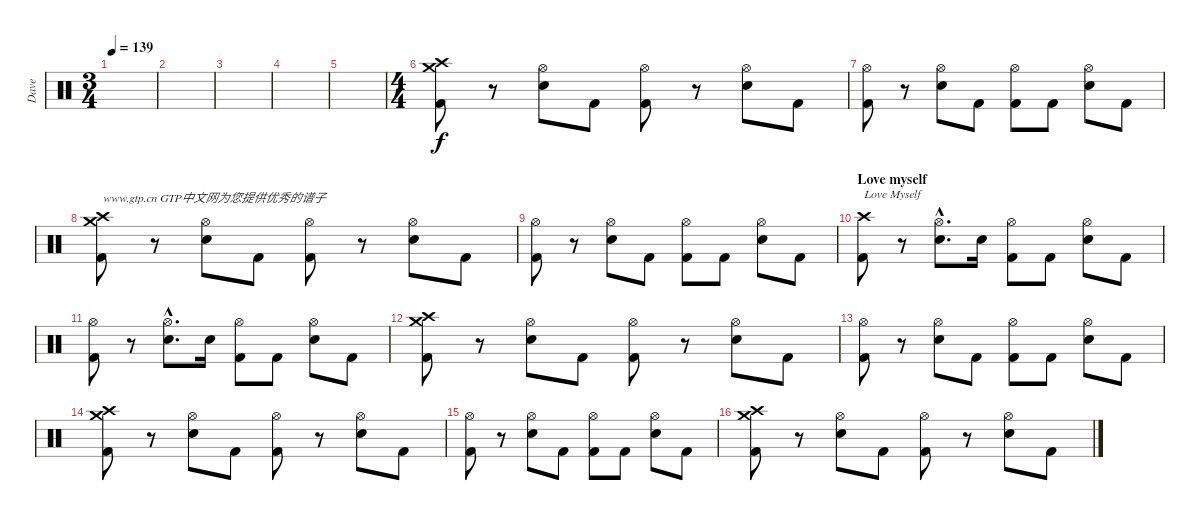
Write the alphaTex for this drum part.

\track ("Dave" "Dave") {instrument percussion}
\staff {score}
\articulation defaults
\ts (3 4)
\tempo 139
\clef neutral
\ks c
|
|
|
|
|
\ts (4 4)
("Crash medium (hit)" "Crash high (hit)" "Kick (hit) 2").8 r.8 ("Hi-Hat (open)" "Snare (hit) 2").8 "Kick (hit) 2".8 ("Hi-Hat (open)" "Kick (hit) 2").8 r.8 ("Hi-Hat (open)" "Snare (hit) 2").8 "Kick (hit) 2".8 |
("Hi-Hat (open)" "Kick (hit) 2").8 r.8 ("Hi-Hat (open)" "Snare (hit) 2").8 "Kick (hit) 2".8 ("Hi-Hat (open)" "Kick (hit) 2").8 "Kick (hit) 2".8 ("Hi-Hat (open)" "Snare (hit) 2").8 "Kick (hit) 2".8 |
("Crash medium (hit)" "Crash high (hit)" "Kick (hit) 2").8{txt "www.gtp.cn GTP中文网为您提供优秀的谱子"} r.8 ("Hi-Hat (open)" "Snare (hit) 2").8 "Kick (hit) 2".8 ("Hi-Hat (open)" "Kick (hit) 2").8 r.8 ("Hi-Hat (open)" "Snare (hit) 2").8 "Kick (hit) 2".8 |
("Hi-Hat (open)" "Kick (hit) 2").8 r.8 ("Hi-Hat (open)" "Snare (hit) 2").8 "Kick (hit) 2".8 ("Hi-Hat (open)" "Kick (hit) 2").8 "Kick (hit) 2".8 ("Hi-Hat (open)" "Snare (hit) 2").8 "Kick (hit) 2".8 |
\section ("" "Love myself")
("Crash high (hit)" "Kick (hit) 2").8{txt "Love Myself"} r.8 ("Hi-Hat (open)"{hac} "Snare (hit) 2"{hac}).8{d} "Snare (hit) 2".16 ("Hi-Hat (open)" "Kick (hit) 2").8 "Kick (hit) 2".8 ("Hi-Hat (open)" "Snare (hit) 2").8 "Kick (hit) 2".8 |
("Hi-Hat (open)" "Kick (hit) 2").8 r.8 ("Hi-Hat (open)"{hac} "Snare (hit) 2"{hac}).8{d} "Snare (hit) 2".16 ("Hi-Hat (open)" "Kick (hit) 2").8 "Kick (hit) 2".8 ("Hi-Hat (open)" "Snare (hit) 2").8 "Kick (hit) 2".8 |
("Crash medium (hit)" "Crash high (hit)" "Kick (hit) 2").8 r.8 ("Hi-Hat (open)" "Snare (hit) 2").8 "Kick (hit) 2".8 ("Hi-Hat (open)" "Kick (hit) 2").8 r.8 ("Hi-Hat (open)" "Snare (hit) 2").8 "Kick (hit) 2".8 |
("Hi-Hat (open)" "Kick (hit) 2").8 r.8 ("Hi-Hat (open)" "Snare (hit) 2").8 "Kick (hit) 2".8 ("Hi-Hat (open)" "Kick (hit) 2").8 "Kick (hit) 2".8 ("Hi-Hat (open)" "Snare (hit) 2").8 "Kick (hit) 2".8 |
("Crash medium (hit)" "Crash high (hit)" "Kick (hit) 2").8 r.8 ("Hi-Hat (open)" "Snare (hit) 2").8 "Kick (hit) 2".8 ("Hi-Hat (open)" "Kick (hit) 2").8 r.8 ("Hi-Hat (open)" "Snare (hit) 2").8 "Kick (hit) 2".8 |
("Hi-Hat (open)" "Kick (hit) 2").8 r.8 ("Hi-Hat (open)" "Snare (hit) 2").8 "Kick (hit) 2".8 ("Hi-Hat (open)" "Kick (hit) 2").8 "Kick (hit) 2".8 ("Hi-Hat (open)" "Snare (hit) 2").8 "Kick (hit) 2".8 |
("Crash medium (hit)" "Crash high (hit)" "Kick (hit) 2").8 r.8 ("Hi-Hat (open)" "Snare (hit) 2").8 "Kick (hit) 2".8 ("Hi-Hat (open)" "Kick (hit) 2").8 r.8 ("Hi-Hat (open)" "Snare (hit) 2").8 "Kick (hit) 2".8
